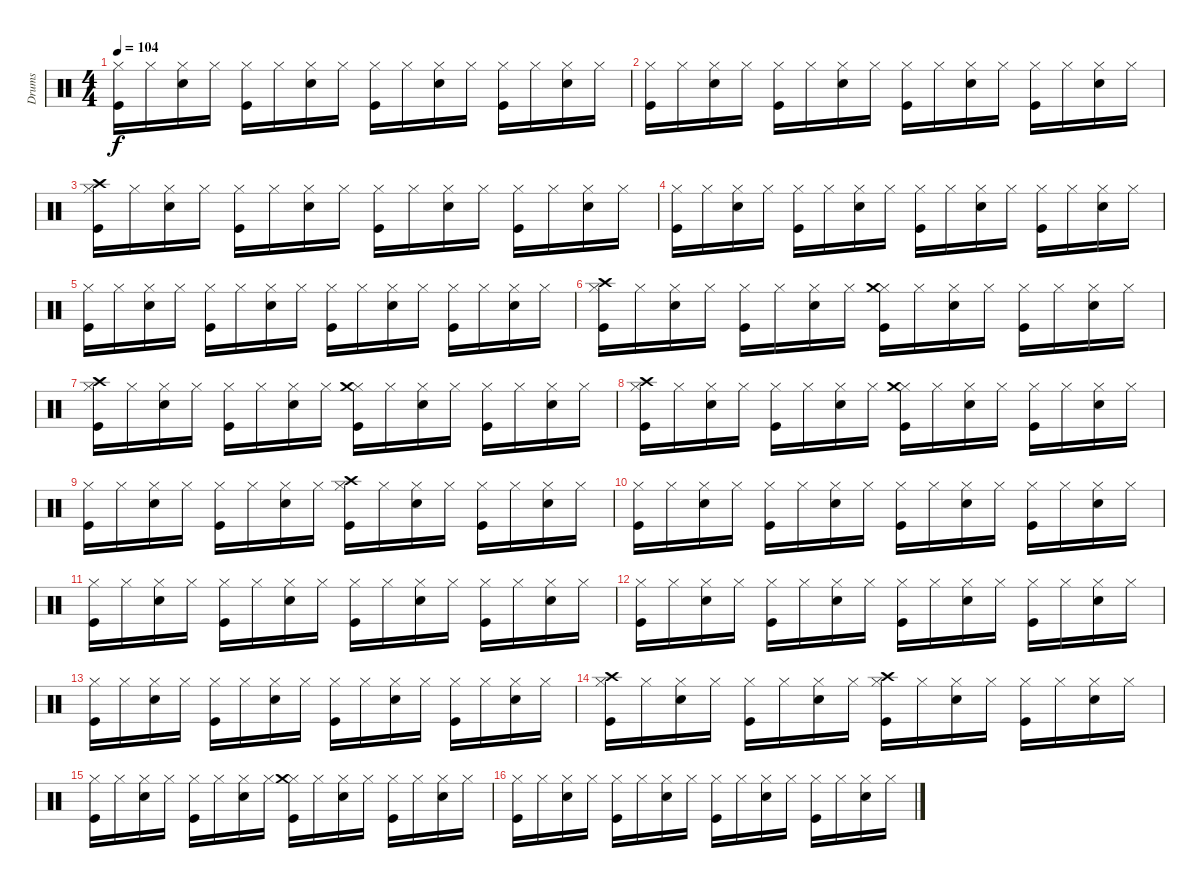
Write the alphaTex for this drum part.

\track ("Drums" "Drums") {instrument percussion}
\staff {score}
\articulation defaults
\ts (4 4)
\tempo 104
\clef neutral
\ks c
("Kick (hit)" "Hi-Hat (closed)").16{dy f} "Hi-Hat (closed)".16 ("Snare (hit) 2" "Hi-Hat (closed)").16 "Hi-Hat (closed)".16 ("Kick (hit)" "Hi-Hat (closed)").16 "Hi-Hat (closed)".16 ("Snare (hit) 2" "Hi-Hat (closed)").16 "Hi-Hat (closed)".16 ("Kick (hit)" "Hi-Hat (closed)").16 "Hi-Hat (closed)".16 ("Snare (hit) 2" "Hi-Hat (closed)").16 "Hi-Hat (closed)".16 ("Kick (hit)" "Hi-Hat (closed)").16 "Hi-Hat (closed)".16 ("Snare (hit) 2" "Hi-Hat (closed)").16 "Hi-Hat (closed)".16 |
("Kick (hit)" "Hi-Hat (closed)").16 "Hi-Hat (closed)".16 ("Snare (hit) 2" "Hi-Hat (closed)").16 "Hi-Hat (closed)".16 ("Kick (hit)" "Hi-Hat (closed)").16 "Hi-Hat (closed)".16 ("Snare (hit) 2" "Hi-Hat (closed)").16 "Hi-Hat (closed)".16 ("Kick (hit)" "Hi-Hat (closed)").16 "Hi-Hat (closed)".16 ("Snare (hit) 2" "Hi-Hat (closed)").16 "Hi-Hat (closed)".16 ("Kick (hit)" "Hi-Hat (closed)").16 "Hi-Hat (closed)".16 ("Snare (hit) 2" "Hi-Hat (closed)").16 "Hi-Hat (closed)".16 |
("Kick (hit)" "Hi-Hat (closed)" "Crash high (hit)").16 "Hi-Hat (closed)".16 ("Snare (hit) 2" "Hi-Hat (closed)").16 "Hi-Hat (closed)".16 ("Kick (hit)" "Hi-Hat (closed)").16 "Hi-Hat (closed)".16 ("Snare (hit) 2" "Hi-Hat (closed)").16 "Hi-Hat (closed)".16 ("Kick (hit)" "Hi-Hat (closed)").16 "Hi-Hat (closed)".16 ("Snare (hit) 2" "Hi-Hat (closed)").16 "Hi-Hat (closed)".16 ("Kick (hit)" "Hi-Hat (closed)").16 "Hi-Hat (closed)".16 ("Snare (hit) 2" "Hi-Hat (closed)").16 "Hi-Hat (closed)".16 |
("Kick (hit)" "Hi-Hat (closed)").16 "Hi-Hat (closed)".16 ("Snare (hit) 2" "Hi-Hat (closed)").16 "Hi-Hat (closed)".16 ("Kick (hit)" "Hi-Hat (closed)").16 "Hi-Hat (closed)".16 ("Snare (hit) 2" "Hi-Hat (closed)").16 "Hi-Hat (closed)".16 ("Kick (hit)" "Hi-Hat (closed)").16 "Hi-Hat (closed)".16 ("Snare (hit) 2" "Hi-Hat (closed)").16 "Hi-Hat (closed)".16 ("Kick (hit)" "Hi-Hat (closed)").16 "Hi-Hat (closed)".16 ("Snare (hit) 2" "Hi-Hat (closed)").16 "Hi-Hat (closed)".16 |
("Kick (hit)" "Hi-Hat (closed)").16 "Hi-Hat (closed)".16 ("Snare (hit) 2" "Hi-Hat (closed)").16 "Hi-Hat (closed)".16 ("Kick (hit)" "Hi-Hat (closed)").16 "Hi-Hat (closed)".16 ("Snare (hit) 2" "Hi-Hat (closed)").16 "Hi-Hat (closed)".16 ("Kick (hit)" "Hi-Hat (closed)").16 "Hi-Hat (closed)".16 ("Snare (hit) 2" "Hi-Hat (closed)").16 "Hi-Hat (closed)".16 ("Kick (hit)" "Hi-Hat (closed)").16 "Hi-Hat (closed)".16 ("Snare (hit) 2" "Hi-Hat (closed)").16 "Hi-Hat (closed)".16 |
("Kick (hit)" "Hi-Hat (closed)" "Crash high (hit)").16 "Hi-Hat (closed)".16 ("Snare (hit) 2" "Hi-Hat (closed)").16 "Hi-Hat (closed)".16 ("Kick (hit)" "Hi-Hat (closed)").16 "Hi-Hat (closed)".16 ("Snare (hit) 2" "Hi-Hat (closed)").16 "Hi-Hat (closed)".16 ("Kick (hit)" "Hi-Hat (closed)" "Crash medium (hit)").16 "Hi-Hat (closed)".16 ("Snare (hit) 2" "Hi-Hat (closed)").16 "Hi-Hat (closed)".16 ("Kick (hit)" "Hi-Hat (closed)").16 "Hi-Hat (closed)".16 ("Snare (hit) 2" "Hi-Hat (closed)").16 "Hi-Hat (closed)".16 |
("Kick (hit)" "Hi-Hat (closed)" "Crash high (hit)").16 "Hi-Hat (closed)".16 ("Snare (hit) 2" "Hi-Hat (closed)").16 "Hi-Hat (closed)".16 ("Kick (hit)" "Hi-Hat (closed)").16 "Hi-Hat (closed)".16 ("Snare (hit) 2" "Hi-Hat (closed)").16 "Hi-Hat (closed)".16 ("Kick (hit)" "Hi-Hat (closed)" "Crash medium (hit)").16 "Hi-Hat (closed)".16 ("Snare (hit) 2" "Hi-Hat (closed)").16 "Hi-Hat (closed)".16 ("Kick (hit)" "Hi-Hat (closed)").16 "Hi-Hat (closed)".16 ("Snare (hit) 2" "Hi-Hat (closed)").16 "Hi-Hat (closed)".16 |
("Kick (hit)" "Hi-Hat (closed)" "Crash high (hit)").16 "Hi-Hat (closed)".16 ("Snare (hit) 2" "Hi-Hat (closed)").16 "Hi-Hat (closed)".16 ("Kick (hit)" "Hi-Hat (closed)").16 "Hi-Hat (closed)".16 ("Snare (hit) 2" "Hi-Hat (closed)").16 "Hi-Hat (closed)".16 ("Kick (hit)" "Hi-Hat (closed)" "Crash medium (hit)").16 "Hi-Hat (closed)".16 ("Snare (hit) 2" "Hi-Hat (closed)").16 "Hi-Hat (closed)".16 ("Kick (hit)" "Hi-Hat (closed)").16 "Hi-Hat (closed)".16 ("Snare (hit) 2" "Hi-Hat (closed)").16 "Hi-Hat (closed)".16 |
("Kick (hit)" "Hi-Hat (closed)").16 "Hi-Hat (closed)".16 ("Snare (hit) 2" "Hi-Hat (closed)").16 "Hi-Hat (closed)".16 ("Kick (hit)" "Hi-Hat (closed)").16 "Hi-Hat (closed)".16 ("Snare (hit) 2" "Hi-Hat (closed)").16 "Hi-Hat (closed)".16 ("Kick (hit)" "Hi-Hat (closed)" "Crash high (hit)").16 "Hi-Hat (closed)".16 ("Snare (hit) 2" "Hi-Hat (closed)").16 "Hi-Hat (closed)".16 ("Kick (hit)" "Hi-Hat (closed)").16 "Hi-Hat (closed)".16 ("Snare (hit) 2" "Hi-Hat (closed)").16 "Hi-Hat (closed)".16 |
("Kick (hit)" "Hi-Hat (closed)").16 "Hi-Hat (closed)".16 ("Snare (hit) 2" "Hi-Hat (closed)").16 "Hi-Hat (closed)".16 ("Kick (hit)" "Hi-Hat (closed)").16 "Hi-Hat (closed)".16 ("Snare (hit) 2" "Hi-Hat (closed)").16 "Hi-Hat (closed)".16 ("Kick (hit)" "Hi-Hat (closed)").16 "Hi-Hat (closed)".16 ("Snare (hit) 2" "Hi-Hat (closed)").16 "Hi-Hat (closed)".16 ("Kick (hit)" "Hi-Hat (closed)").16 "Hi-Hat (closed)".16 ("Snare (hit) 2" "Hi-Hat (closed)").16 "Hi-Hat (closed)".16 |
("Kick (hit)" "Hi-Hat (closed)").16 "Hi-Hat (closed)".16 ("Snare (hit) 2" "Hi-Hat (closed)").16 "Hi-Hat (closed)".16 ("Kick (hit)" "Hi-Hat (closed)").16 "Hi-Hat (closed)".16 ("Snare (hit) 2" "Hi-Hat (closed)").16 "Hi-Hat (closed)".16 ("Kick (hit)" "Hi-Hat (closed)").16 "Hi-Hat (closed)".16 ("Snare (hit) 2" "Hi-Hat (closed)").16 "Hi-Hat (closed)".16 ("Kick (hit)" "Hi-Hat (closed)").16 "Hi-Hat (closed)".16 ("Snare (hit) 2" "Hi-Hat (closed)").16 "Hi-Hat (closed)".16 |
("Kick (hit)" "Hi-Hat (closed)").16 "Hi-Hat (closed)".16 ("Snare (hit) 2" "Hi-Hat (closed)").16 "Hi-Hat (closed)".16 ("Kick (hit)" "Hi-Hat (closed)").16 "Hi-Hat (closed)".16 ("Snare (hit) 2" "Hi-Hat (closed)").16 "Hi-Hat (closed)".16 ("Kick (hit)" "Hi-Hat (closed)").16 "Hi-Hat (closed)".16 ("Snare (hit) 2" "Hi-Hat (closed)").16 "Hi-Hat (closed)".16 ("Kick (hit)" "Hi-Hat (closed)").16 "Hi-Hat (closed)".16 ("Snare (hit) 2" "Hi-Hat (closed)").16 "Hi-Hat (closed)".16 |
("Kick (hit)" "Hi-Hat (closed)").16 "Hi-Hat (closed)".16 ("Snare (hit) 2" "Hi-Hat (closed)").16 "Hi-Hat (closed)".16 ("Kick (hit)" "Hi-Hat (closed)").16 "Hi-Hat (closed)".16 ("Snare (hit) 2" "Hi-Hat (closed)").16 "Hi-Hat (closed)".16 ("Kick (hit)" "Hi-Hat (closed)").16 "Hi-Hat (closed)".16 ("Snare (hit) 2" "Hi-Hat (closed)").16 "Hi-Hat (closed)".16 ("Kick (hit)" "Hi-Hat (closed)").16 "Hi-Hat (closed)".16 ("Snare (hit) 2" "Hi-Hat (closed)").16 "Hi-Hat (closed)".16 |
("Kick (hit)" "Hi-Hat (closed)" "Crash high (hit)").16 "Hi-Hat (closed)".16 ("Snare (hit) 2" "Hi-Hat (closed)").16 "Hi-Hat (closed)".16 ("Kick (hit)" "Hi-Hat (closed)").16 "Hi-Hat (closed)".16 ("Snare (hit) 2" "Hi-Hat (closed)").16 "Hi-Hat (closed)".16 ("Kick (hit)" "Hi-Hat (closed)" "Crash high (hit)").16 "Hi-Hat (closed)".16 ("Snare (hit) 2" "Hi-Hat (closed)").16 "Hi-Hat (closed)".16 ("Kick (hit)" "Hi-Hat (closed)").16 "Hi-Hat (closed)".16 ("Snare (hit) 2" "Hi-Hat (closed)").16 "Hi-Hat (closed)".16 |
("Kick (hit)" "Hi-Hat (closed)").16 "Hi-Hat (closed)".16 ("Snare (hit) 2" "Hi-Hat (closed)").16 "Hi-Hat (closed)".16 ("Kick (hit)" "Hi-Hat (closed)").16 "Hi-Hat (closed)".16 ("Snare (hit) 2" "Hi-Hat (closed)").16 "Hi-Hat (closed)".16 ("Kick (hit)" "Hi-Hat (closed)" "Crash medium (hit)").16 "Hi-Hat (closed)".16 ("Snare (hit) 2" "Hi-Hat (closed)").16 "Hi-Hat (closed)".16 ("Kick (hit)" "Hi-Hat (closed)").16 "Hi-Hat (closed)".16 ("Snare (hit) 2" "Hi-Hat (closed)").16 "Hi-Hat (closed)".16 |
("Kick (hit)" "Hi-Hat (closed)").16 "Hi-Hat (closed)".16 ("Snare (hit) 2" "Hi-Hat (closed)").16 "Hi-Hat (closed)".16 ("Kick (hit)" "Hi-Hat (closed)").16 "Hi-Hat (closed)".16 ("Snare (hit) 2" "Hi-Hat (closed)").16 "Hi-Hat (closed)".16 ("Kick (hit)" "Hi-Hat (closed)").16 "Hi-Hat (closed)".16 ("Snare (hit) 2" "Hi-Hat (closed)").16 "Hi-Hat (closed)".16 ("Kick (hit)" "Hi-Hat (closed)").16 "Hi-Hat (closed)".16 ("Snare (hit) 2" "Hi-Hat (closed)").16 "Hi-Hat (closed)".16
